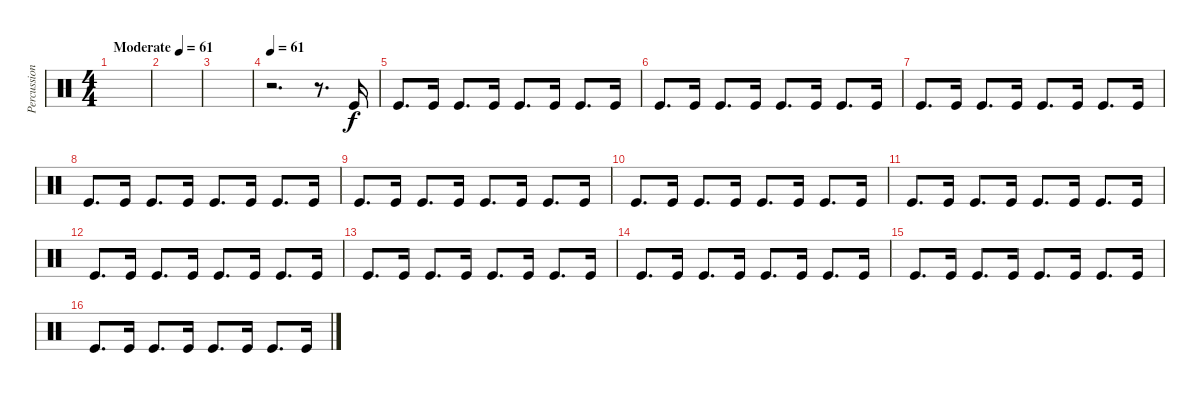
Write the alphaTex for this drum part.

\track ("Percussion" "Percussion") {instrument percussion}
\staff {score}
\articulation defaults
\ts (4 4)
\tempo (61 "Moderate")
\clef neutral
\ks c
|
|
|
\tempo 61
r.2{d} r.8{d} "Kick (hit)".16 |
"Kick (hit)".8{d} "Kick (hit)".16 "Kick (hit)".8{d} "Kick (hit)".16 "Kick (hit)".8{d} "Kick (hit)".16 "Kick (hit)".8{d} "Kick (hit)".16 |
"Kick (hit)".8{d} "Kick (hit)".16 "Kick (hit)".8{d} "Kick (hit)".16 "Kick (hit)".8{d} "Kick (hit)".16 "Kick (hit)".8{d} "Kick (hit)".16 |
"Kick (hit)".8{d} "Kick (hit)".16 "Kick (hit)".8{d} "Kick (hit)".16 "Kick (hit)".8{d} "Kick (hit)".16 "Kick (hit)".8{d} "Kick (hit)".16 |
"Kick (hit)".8{d} "Kick (hit)".16 "Kick (hit)".8{d} "Kick (hit)".16 "Kick (hit)".8{d} "Kick (hit)".16 "Kick (hit)".8{d} "Kick (hit)".16 |
"Kick (hit)".8{d} "Kick (hit)".16 "Kick (hit)".8{d} "Kick (hit)".16 "Kick (hit)".8{d} "Kick (hit)".16 "Kick (hit)".8{d} "Kick (hit)".16 |
"Kick (hit)".8{d} "Kick (hit)".16 "Kick (hit)".8{d} "Kick (hit)".16 "Kick (hit)".8{d} "Kick (hit)".16 "Kick (hit)".8{d} "Kick (hit)".16 |
"Kick (hit)".8{d} "Kick (hit)".16 "Kick (hit)".8{d} "Kick (hit)".16 "Kick (hit)".8{d} "Kick (hit)".16 "Kick (hit)".8{d} "Kick (hit)".16 |
"Kick (hit)".8{d} "Kick (hit)".16 "Kick (hit)".8{d} "Kick (hit)".16 "Kick (hit)".8{d} "Kick (hit)".16 "Kick (hit)".8{d} "Kick (hit)".16 |
"Kick (hit)".8{d} "Kick (hit)".16 "Kick (hit)".8{d} "Kick (hit)".16 "Kick (hit)".8{d} "Kick (hit)".16 "Kick (hit)".8{d} "Kick (hit)".16 |
"Kick (hit)".8{d} "Kick (hit)".16 "Kick (hit)".8{d} "Kick (hit)".16 "Kick (hit)".8{d} "Kick (hit)".16 "Kick (hit)".8{d} "Kick (hit)".16 |
"Kick (hit)".8{d} "Kick (hit)".16 "Kick (hit)".8{d} "Kick (hit)".16 "Kick (hit)".8{d} "Kick (hit)".16 "Kick (hit)".8{d} "Kick (hit)".16 |
"Kick (hit)".8{d} "Kick (hit)".16 "Kick (hit)".8{d} "Kick (hit)".16 "Kick (hit)".8{d} "Kick (hit)".16 "Kick (hit)".8{d} "Kick (hit)".16
